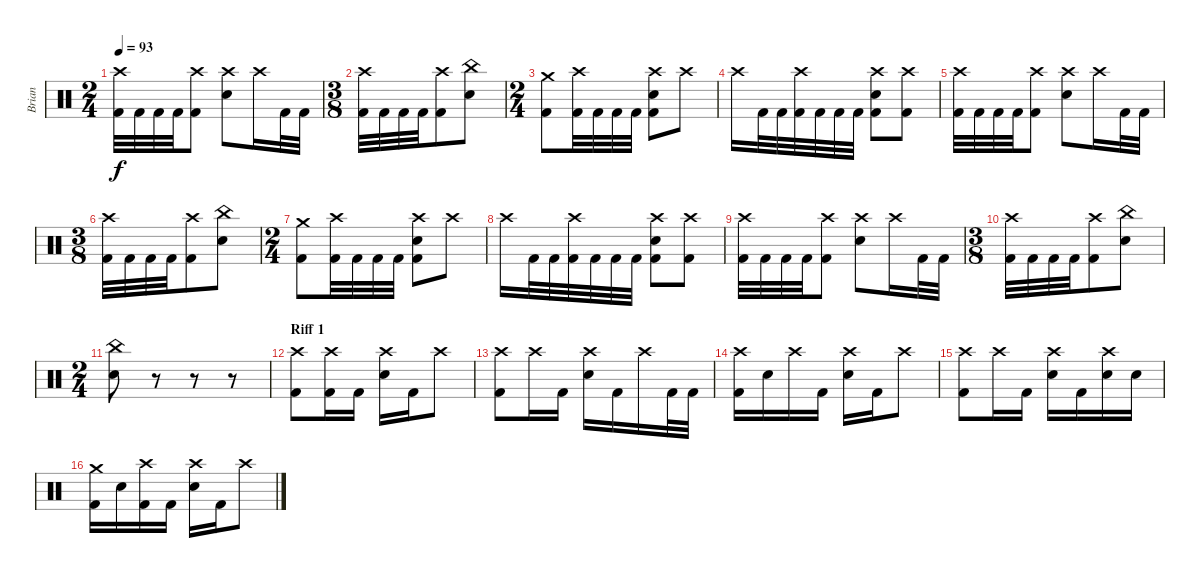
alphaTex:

\track ("Brian" "Brian") {instrument percussion}
\staff {score}
\articulation defaults
\ts (2 4)
\tempo 93
\clef neutral
\ks c
("Crash high (hit)" "Kick (hit) 2").32{dy f} "Kick (hit) 2".32 "Kick (hit) 2".32 "Kick (hit) 2".32 ("Crash high (hit)" "Kick (hit) 2").8 ("Crash high (hit)" "Electric Snare (hit)").8 "Crash high (hit)".16 "Kick (hit) 2".32 "Kick (hit) 2".32 |
\ts (3 8)
("Crash high (hit)" "Kick (hit) 2").32 "Kick (hit) 2".32 "Kick (hit) 2".32 "Kick (hit) 2".32 ("Crash high (hit)" "Kick (hit) 2").8 ("China (hit)" "Electric Snare (hit)").8 |
\ts (2 4)
("Crash medium (hit)" "Kick (hit) 2").8 ("Crash high (hit)" "Kick (hit) 2").32 "Kick (hit) 2".32 "Kick (hit) 2".32 "Kick (hit) 2".32 ("Crash high (hit)" "Electric Snare (hit)" "Kick (hit) 2").8 "Crash high (hit)".8 |
"Crash high (hit)".16 "Kick (hit) 2".32 "Kick (hit) 2".32 ("Crash high (hit)" "Kick (hit) 2").32 "Kick (hit) 2".32 "Kick (hit) 2".32 "Kick (hit) 2".32 ("Crash high (hit)" "Electric Snare (hit)" "Kick (hit) 2").8 ("Crash high (hit)" "Kick (hit) 2").8 |
("Crash high (hit)" "Kick (hit) 2").32 "Kick (hit) 2".32 "Kick (hit) 2".32 "Kick (hit) 2".32 ("Crash high (hit)" "Kick (hit) 2").8 ("Crash high (hit)" "Electric Snare (hit)").8 "Crash high (hit)".16 "Kick (hit) 2".32 "Kick (hit) 2".32 |
\ts (3 8)
("Crash high (hit)" "Kick (hit) 2").32 "Kick (hit) 2".32 "Kick (hit) 2".32 "Kick (hit) 2".32 ("Crash high (hit)" "Kick (hit) 2").8 ("China (hit)" "Electric Snare (hit)").8 |
\ts (2 4)
("Crash medium (hit)" "Kick (hit) 2").8 ("Crash high (hit)" "Kick (hit) 2").32 "Kick (hit) 2".32 "Kick (hit) 2".32 "Kick (hit) 2".32 ("Crash high (hit)" "Electric Snare (hit)" "Kick (hit) 2").8 "Crash high (hit)".8 |
"Crash high (hit)".16 "Kick (hit) 2".32 "Kick (hit) 2".32 ("Crash high (hit)" "Kick (hit) 2").32 "Kick (hit) 2".32 "Kick (hit) 2".32 "Kick (hit) 2".32 ("Crash high (hit)" "Electric Snare (hit)" "Kick (hit) 2").8 ("Crash high (hit)" "Kick (hit) 2").8 |
("Crash high (hit)" "Kick (hit) 2").32 "Kick (hit) 2".32 "Kick (hit) 2".32 "Kick (hit) 2".32 ("Crash high (hit)" "Kick (hit) 2").8 ("Crash high (hit)" "Electric Snare (hit)").8 "Crash high (hit)".16 "Kick (hit) 2".32 "Kick (hit) 2".32 |
\ts (3 8)
("Crash high (hit)" "Kick (hit) 2").32 "Kick (hit) 2".32 "Kick (hit) 2".32 "Kick (hit) 2".32 ("Crash high (hit)" "Kick (hit) 2").8 ("China (hit)" "Electric Snare (hit)").8 |
\ts (2 4)
("China (hit)" "Electric Snare (hit)").8 r.8 r.8 r.8 |
\section ("" "Riff 1")
("Crash high (hit)" "Kick (hit) 2").8 ("Crash high (hit)" "Kick (hit) 2").16 "Kick (hit) 2".16 ("Crash high (hit)" "Electric Snare (hit)").16 "Kick (hit) 2".16 "Crash high (hit)".8 |
("Crash high (hit)" "Kick (hit) 2").8 "Crash high (hit)".16 "Kick (hit) 2".16 ("Crash high (hit)" "Electric Snare (hit)").16 "Kick (hit) 2".16 "Crash high (hit)".16 "Kick (hit) 2".32 "Kick (hit) 2".32 |
("Crash high (hit)" "Kick (hit) 2").16 "Electric Snare (hit)".16 "Crash high (hit)".16 "Kick (hit) 2".16 ("Crash high (hit)" "Electric Snare (hit)").16 "Kick (hit) 2".16 "Crash high (hit)".8 |
("Crash high (hit)" "Kick (hit) 2").8 "Crash high (hit)".16 "Kick (hit) 2".16 ("Crash high (hit)" "Electric Snare (hit)").16 "Kick (hit) 2".16 ("Crash high (hit)" "Electric Snare (hit)").16 "Electric Snare (hit)".16 |
("Crash medium (hit)" "Kick (hit) 2").16 "Electric Snare (hit)".16 ("Crash high (hit)" "Kick (hit) 2").16 "Kick (hit) 2".16 ("Crash high (hit)" "Electric Snare (hit)").16 "Kick (hit) 2".16 "Crash high (hit)".8
